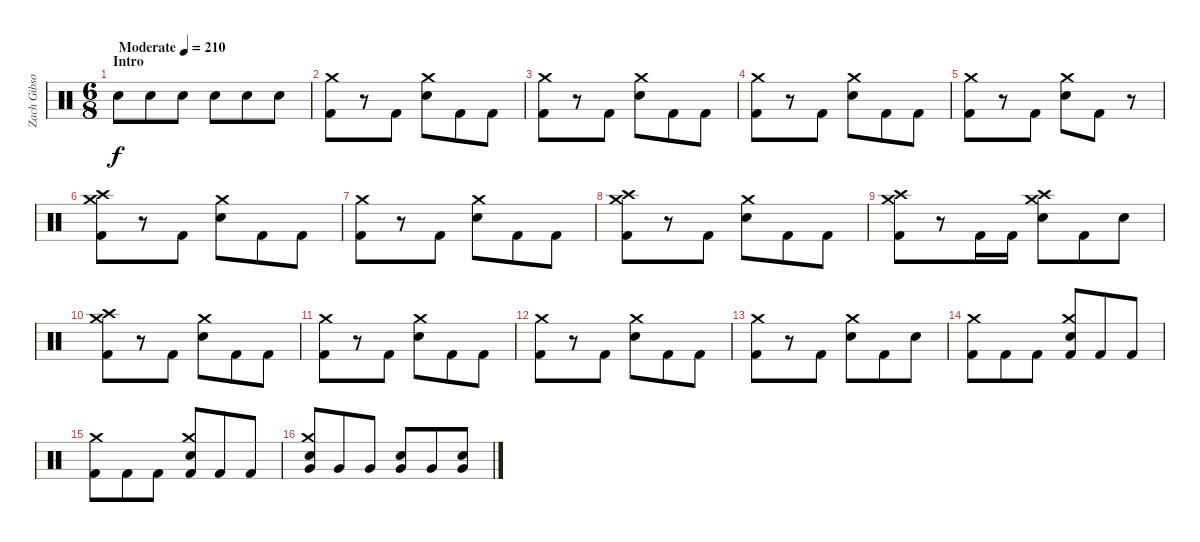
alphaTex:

\track ("Zach Gibson" "Zach Gibso") {instrument percussion}
\staff {score}
\articulation defaults
\ts (6 8)
\section ("" "Intro")
\tempo (210 "Moderate")
\clef neutral
\ks c "Snare (hit) 2".8{dy f} "Snare (hit) 2".8 "Snare (hit) 2".8 "Snare (hit) 2".8 "Snare (hit) 2".8 "Snare (hit) 2".8
|
("Crash medium (hit)" "Kick (hit) 2").8 r.8 "Kick (hit) 2".8 ("Crash medium (hit)" "Snare (hit) 2").8 "Kick (hit) 2".8 "Kick (hit) 2".8 |
("Crash medium (hit)" "Kick (hit) 2").8 r.8 "Kick (hit) 2".8 ("Crash medium (hit)" "Snare (hit) 2").8 "Kick (hit) 2".8 "Kick (hit) 2".8 |
("Crash medium (hit)" "Kick (hit) 2").8 r.8 "Kick (hit) 2".8 ("Crash medium (hit)" "Snare (hit) 2").8 "Kick (hit) 2".8 "Kick (hit) 2".8 |
("Crash medium (hit)" "Kick (hit) 2").8 r.8 "Kick (hit) 2".8 ("Crash medium (hit)" "Snare (hit) 2").8 "Kick (hit) 2".8 r.8 |
("Crash high (hit)" "Crash medium (hit)" "Kick (hit) 2").8 r.8 "Kick (hit) 2".8 ("Crash medium (hit)" "Snare (hit) 2").8 "Kick (hit) 2".8 "Kick (hit) 2".8 |
("Crash medium (hit)" "Kick (hit) 2").8 r.8 "Kick (hit) 2".8 ("Crash medium (hit)" "Snare (hit) 2").8 "Kick (hit) 2".8 "Kick (hit) 2".8 |
("Crash high (hit)" "Crash medium (hit)" "Kick (hit) 2").8 r.8 "Kick (hit) 2".8 ("Crash medium (hit)" "Snare (hit) 2").8 "Kick (hit) 2".8 "Kick (hit) 2".8 |
("Crash high (hit)" "Crash medium (hit)" "Kick (hit) 2").8 r.8 "Kick (hit) 2".16 "Kick (hit) 2".16 ("Crash high (hit)" "Crash medium (hit)" "Snare (hit) 2").8 "Kick (hit) 2".8 "Snare (hit) 2".8 |
("Crash high (hit)" "Crash medium (hit)" "Kick (hit) 2").8 r.8 "Kick (hit) 2".8 ("Crash medium (hit)" "Snare (hit) 2").8 "Kick (hit) 2".8 "Kick (hit) 2".8 |
("Crash medium (hit)" "Kick (hit) 2").8 r.8 "Kick (hit) 2".8 ("Crash medium (hit)" "Snare (hit) 2").8 "Kick (hit) 2".8 "Kick (hit) 2".8 |
("Crash medium (hit)" "Kick (hit) 2").8 r.8 "Kick (hit) 2".8 ("Crash medium (hit)" "Snare (hit) 2").8 "Kick (hit) 2".8 "Kick (hit) 2".8 |
("Crash medium (hit)" "Kick (hit) 2").8 r.8 "Kick (hit) 2".8 ("Crash medium (hit)" "Snare (hit) 2").8 "Kick (hit) 2".8 "Snare (hit) 2".8 |
("Crash medium (hit)" "Kick (hit) 2").8 "Kick (hit) 2".8 "Kick (hit) 2".8 ("Crash medium (hit)" "Snare (hit) 2" "Kick (hit) 2").8 "Kick (hit) 2".8 "Kick (hit) 2".8 |
("Crash medium (hit)" "Kick (hit) 2").8 "Kick (hit) 2".8 "Kick (hit) 2".8 ("Crash medium (hit)" "Snare (hit) 2" "Kick (hit) 2").8 "Kick (hit) 2".8 "Kick (hit) 2".8 |
("Crash medium (hit)" "Snare (hit) 2" "Very Low Tom (hit)").8 "Very Low Tom (hit)".8 "Very Low Tom (hit)".8 ("Snare (hit) 2" "Very Low Tom (hit)").8 "Very Low Tom (hit)".8 ("Snare (hit) 2" "Very Low Tom (hit)").8
